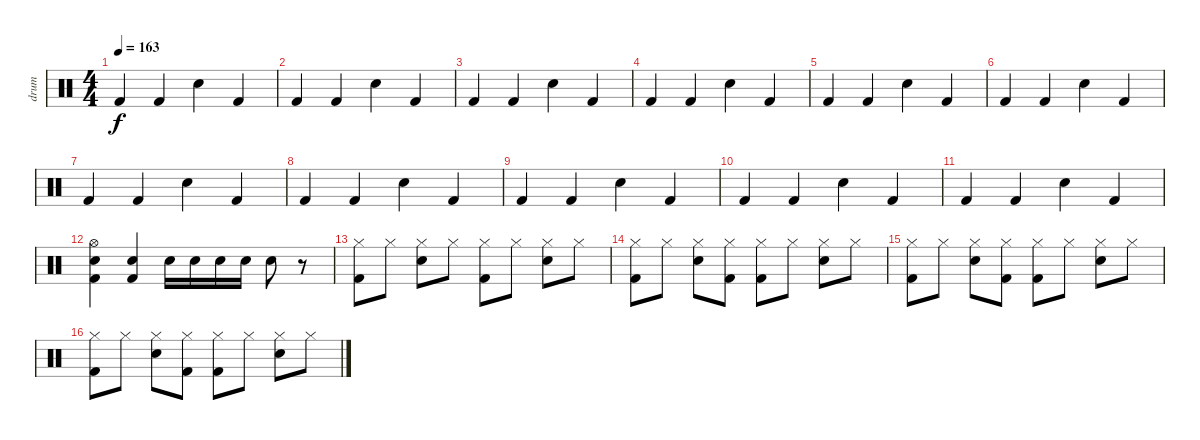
\track ("drum" "drum") {instrument percussion}
\staff {score}
\articulation defaults
\ts (4 4)
\tempo 163
\clef neutral
\ks c "Kick (hit) 2".4{dy f} "Kick (hit) 2".4 "Electric Snare (hit)".4 "Kick (hit) 2".4
|
"Kick (hit) 2".4 "Kick (hit) 2".4 "Electric Snare (hit)".4 "Kick (hit) 2".4 |
"Kick (hit) 2".4 "Kick (hit) 2".4 "Electric Snare (hit)".4 "Kick (hit) 2".4 |
"Kick (hit) 2".4 "Kick (hit) 2".4 "Electric Snare (hit)".4 "Kick (hit) 2".4 |
"Kick (hit) 2".4 "Kick (hit) 2".4 "Electric Snare (hit)".4 "Kick (hit) 2".4 |
"Kick (hit) 2".4 "Kick (hit) 2".4 "Electric Snare (hit)".4 "Kick (hit) 2".4 |
"Kick (hit) 2".4 "Kick (hit) 2".4 "Electric Snare (hit)".4 "Kick (hit) 2".4 |
"Kick (hit) 2".4 "Kick (hit) 2".4 "Electric Snare (hit)".4 "Kick (hit) 2".4 |
"Kick (hit) 2".4 "Kick (hit) 2".4 "Electric Snare (hit)".4 "Kick (hit) 2".4 |
"Kick (hit) 2".4 "Kick (hit) 2".4 "Electric Snare (hit)".4 "Kick (hit) 2".4 |
"Kick (hit) 2".4 "Kick (hit) 2".4 "Electric Snare (hit)".4 "Kick (hit) 2".4 |
("Hi-Hat (open)" "Electric Snare (hit)" "Kick (hit) 2").4 ("Electric Snare (hit)" "Kick (hit) 2").4 "Electric Snare (hit)".16 "Electric Snare (hit)".16 "Electric Snare (hit)".16 "Electric Snare (hit)".16 "Electric Snare (hit)".8 r.8 |
("Hi-Hat (closed)" "Kick (hit) 2").8 "Hi-Hat (closed)".8 ("Hi-Hat (closed)" "Electric Snare (hit)").8 "Hi-Hat (closed)".8 ("Hi-Hat (closed)" "Kick (hit) 2").8 "Hi-Hat (closed)".8 ("Hi-Hat (closed)" "Electric Snare (hit)").8 "Hi-Hat (closed)".8 |
("Hi-Hat (closed)" "Kick (hit) 2").8 "Hi-Hat (closed)".8 ("Hi-Hat (closed)" "Electric Snare (hit)").8 ("Hi-Hat (closed)" "Kick (hit) 2").8 ("Hi-Hat (closed)" "Kick (hit) 2").8 "Hi-Hat (closed)".8 ("Hi-Hat (closed)" "Electric Snare (hit)").8 "Hi-Hat (closed)".8 |
("Hi-Hat (closed)" "Kick (hit) 2").8 "Hi-Hat (closed)".8 ("Hi-Hat (closed)" "Electric Snare (hit)").8 ("Hi-Hat (closed)" "Kick (hit) 2").8 ("Hi-Hat (closed)" "Kick (hit) 2").8 "Hi-Hat (closed)".8 ("Hi-Hat (closed)" "Electric Snare (hit)").8 "Hi-Hat (closed)".8 |
("Hi-Hat (closed)" "Kick (hit) 2").8 "Hi-Hat (closed)".8 ("Hi-Hat (closed)" "Electric Snare (hit)").8 ("Hi-Hat (closed)" "Kick (hit) 2").8 ("Hi-Hat (closed)" "Kick (hit) 2").8 "Hi-Hat (closed)".8 ("Hi-Hat (closed)" "Electric Snare (hit)").8 "Hi-Hat (closed)".8
